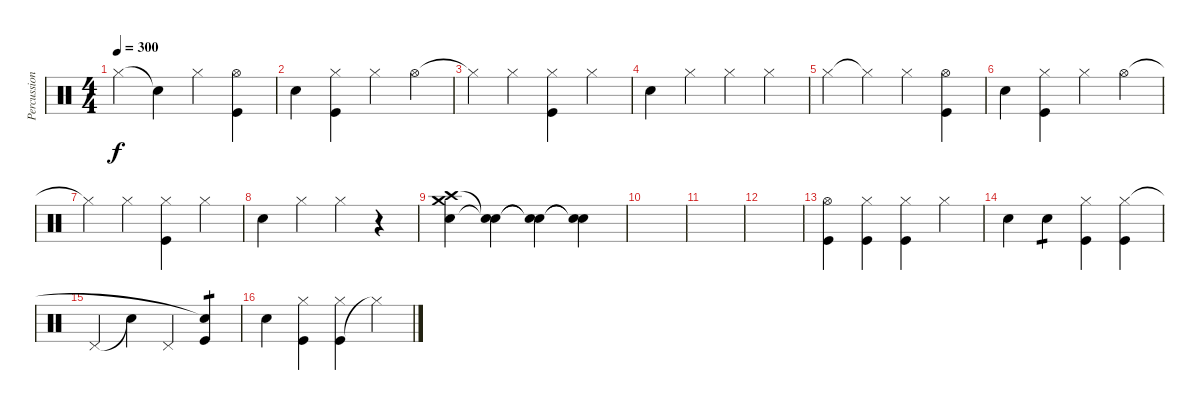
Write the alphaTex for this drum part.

\track ("Percussion" "Percussion") {instrument percussion}
\staff {score}
\articulation defaults
\ts (4 4)
\tempo 300
\clef neutral
\ks c "Hi-Hat (closed)".4{dy f} "Snare (hit)"{t}.4 "Hi-Hat (closed)".4
("Kick (hit)" "Hi-Hat (open)").4 |
"Electric Snare (hit)".4 ("Kick (hit)" "Hi-Hat (closed)").4 "Hi-Hat (closed)".4 "Hi-Hat (open)".4 |
"Hi-Hat (closed)"{t}.4 "Hi-Hat (closed)".4 ("Kick (hit)" "Hi-Hat (closed)").4 "Hi-Hat (closed)".4 |
"Electric Snare (hit)".4 "Hi-Hat (closed)".4 "Hi-Hat (closed)".4 "Hi-Hat (closed)".4 |
"Hi-Hat (closed)".4 "Hi-Hat (closed)"{t}.4 "Hi-Hat (closed)".4 ("Kick (hit)" "Hi-Hat (open)").4 |
"Electric Snare (hit)".4 ("Kick (hit)" "Hi-Hat (closed)").4 "Hi-Hat (closed)".4 "Hi-Hat (open)".4 |
"Hi-Hat (closed)"{t}.4 "Hi-Hat (closed)".4 ("Kick (hit)" "Hi-Hat (closed)").4 "Hi-Hat (closed)".4 |
"Electric Snare (hit)".4 "Hi-Hat (closed)".4 "Hi-Hat (closed)".4 r.4 |
("Electric Snare (hit)" "Crash high (hit)" "Crash medium (hit)").4 ("Snare (hit)"{t} "Snare (hit)"{t}).4 ("Snare (hit)"{t} "Snare (hit)"{t}).4 ("Snare (hit)"{t} "Snare (hit)"{t}).4 |
|
|
|
("Kick (hit)" "Hi-Hat (open)").4 ("Kick (hit)" "Hi-Hat (closed)").4 ("Kick (hit)" "Hi-Hat (closed)").4 "Hi-Hat (closed)".4 |
"Electric Snare (hit)".4 "Electric Snare (hit)".4{tp 1} ("Kick (hit)" "Hi-Hat (closed)").4 ("Kick (hit)" "Hi-Hat (closed)").4 |
"Pedal Hi-Hat (hit)".4 "Electric Snare (hit)"{t}.4 "Pedal Hi-Hat (hit)".4 ("Kick (hit)" "Snare (hit)"{t}).4{tp 1} |
"Electric Snare (hit)".4 ("Kick (hit)" "Hi-Hat (closed)").4 ("Kick (hit)" "Hi-Hat (closed)").4 "Hi-Hat (closed)"{t}.4
